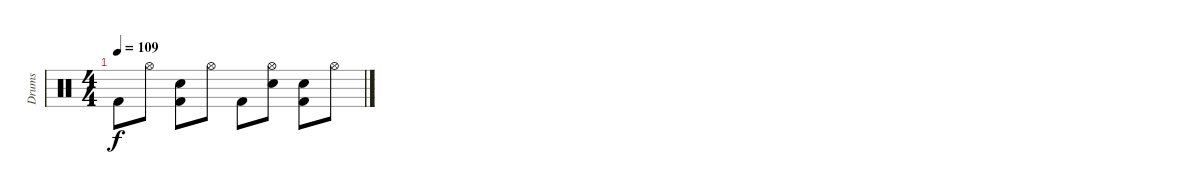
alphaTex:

\track ("Drums" "Drums") {instrument percussion}
\staff {score}
\articulation defaults
\ts (4 4)
\tempo 109
\clef neutral
\ks c "Kick (hit) 2".8{dy f} "Hi-Hat (open)".8
("Hand Clap (hit)" "Kick (hit) 2").8 "Hi-Hat (open)".8 "Kick (hit) 2".8 ("Hi-Hat (open)" "Hand Clap (hit)").8 ("Hand Clap (hit)" "Kick (hit) 2").8 "Hi-Hat (open)".8
